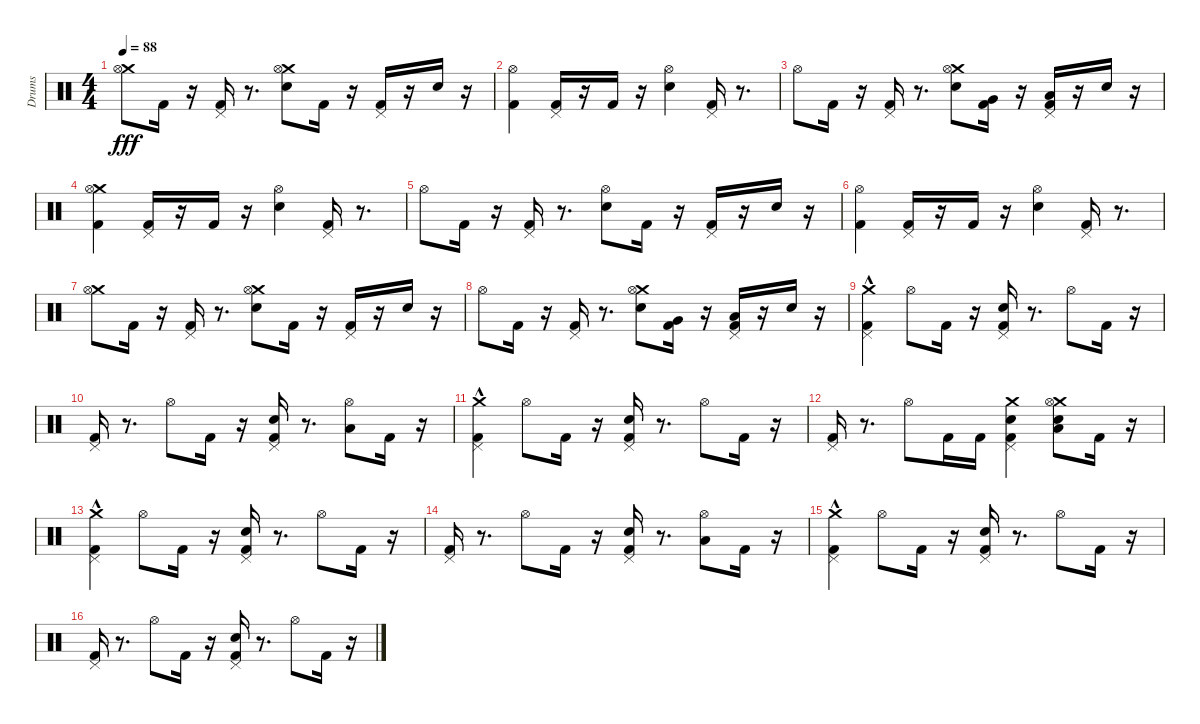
\track ("Drums" "Drums") {instrument percussion}
\staff {score}
\articulation defaults
\ts (4 4)
\tempo 88
\clef neutral
\ks c
("Crash medium (hit)" "Hi-Hat (open)").8{dy fff} "Kick (hit) 2".16 r.16 ("Pedal Hi-Hat (hit)" "Kick (hit) 2").16 r.8{d} ("Crash medium (hit)" "Hi-Hat (open)" "Snare (hit) 2").8 "Kick (hit) 2".16 r.16 ("Pedal Hi-Hat (hit)" "Kick (hit) 2").16 r.16 "Snare (hit) 2".16 r.16 |
("Hi-Hat (open)" "Kick (hit) 2").4 ("Pedal Hi-Hat (hit)" "Kick (hit) 2").16 r.16 "Kick (hit) 2".16 r.16 ("Hi-Hat (open)" "Snare (hit) 2").4 ("Pedal Hi-Hat (hit)" "Kick (hit) 2").16 r.8{d} |
"Hi-Hat (open)".8 "Kick (hit) 2".16 r.16 ("Pedal Hi-Hat (hit)" "Kick (hit) 2").16 r.8{d} ("Crash medium (hit)" "Hi-Hat (open)" "Snare (hit) 2").8 ("Very Low Tom (hit)" "Kick (hit) 2").16 r.16 ("Low Floor Tom (hit)" "Pedal Hi-Hat (hit)" "Kick (hit) 2").16 r.16 "Electric Snare (hit)".16 r.16 |
("Crash medium (hit)" "Hi-Hat (open)" "Kick (hit) 2").4 ("Pedal Hi-Hat (hit)" "Kick (hit) 2").16 r.16 "Kick (hit) 2".16 r.16 ("Hi-Hat (open)" "Snare (hit) 2").4 ("Pedal Hi-Hat (hit)" "Kick (hit) 2").16 r.8{d} |
"Hi-Hat (open)".8 "Kick (hit) 2".16 r.16 ("Pedal Hi-Hat (hit)" "Kick (hit) 2").16 r.8{d} ("Hi-Hat (open)" "Snare (hit) 2").8 "Kick (hit) 2".16 r.16 ("Pedal Hi-Hat (hit)" "Kick (hit) 2").16 r.16 "Snare (hit) 2".16 r.16 |
("Hi-Hat (open)" "Kick (hit) 2").4 ("Pedal Hi-Hat (hit)" "Kick (hit) 2").16 r.16 "Kick (hit) 2".16 r.16 ("Hi-Hat (open)" "Snare (hit) 2").4 ("Pedal Hi-Hat (hit)" "Kick (hit) 2").16 r.8{d} |
("Crash medium (hit)" "Hi-Hat (open)").8 "Kick (hit) 2".16 r.16 ("Pedal Hi-Hat (hit)" "Kick (hit) 2").16 r.8{d} ("Crash medium (hit)" "Hi-Hat (open)" "Snare (hit) 2").8 "Kick (hit) 2".16 r.16 ("Pedal Hi-Hat (hit)" "Kick (hit) 2").16 r.16 "Snare (hit) 2".16 r.16 |
"Hi-Hat (open)".8 "Kick (hit) 2".16 r.16 ("Pedal Hi-Hat (hit)" "Kick (hit) 2").16 r.8{d} ("Crash medium (hit)" "Hi-Hat (open)" "Snare (hit) 2").8 ("Very Low Tom (hit)" "Kick (hit) 2").16 r.16 ("Low Floor Tom (hit)" "Pedal Hi-Hat (hit)" "Kick (hit) 2").16 r.16 "Electric Snare (hit)".16 r.16 |
("Crash medium (hit)"{hac} "Pedal Hi-Hat (hit)" "Kick (hit) 2").4 "Hi-Hat (open)".8 "Kick (hit) 2".16 r.16 ("Pedal Hi-Hat (hit)" "Snare (hit) 2" "Kick (hit) 2").16 r.8{d} "Hi-Hat (open)".8 "Kick (hit) 2".16 r.16 |
("Pedal Hi-Hat (hit)" "Kick (hit) 2").16 r.8{d} "Hi-Hat (open)".8 "Kick (hit) 2".16 r.16 ("Pedal Hi-Hat (hit)" "Snare (hit) 2" "Kick (hit) 2").16 r.8{d} ("Low Floor Tom (hit)" "Hi-Hat (open)").8 "Kick (hit) 2".16 r.16 |
("Crash medium (hit)"{hac} "Pedal Hi-Hat (hit)" "Kick (hit) 2").4 "Hi-Hat (open)".8 "Kick (hit) 2".16 r.16 ("Pedal Hi-Hat (hit)" "Snare (hit) 2" "Kick (hit) 2").16 r.8{d} "Hi-Hat (open)".8 "Kick (hit) 2".16 r.16 |
("Pedal Hi-Hat (hit)" "Kick (hit) 2").16 r.8{d} "Hi-Hat (open)".8 "Kick (hit) 2".16 "Kick (hit) 2".16 ("Crash medium (hit)" "Pedal Hi-Hat (hit)" "Snare (hit) 2" "Kick (hit) 2").4 ("Crash medium (hit)" "Snare (hit) 2" "Low Floor Tom (hit)" "Hi-Hat (open)").8 "Kick (hit) 2".16 r.16 |
("Crash medium (hit)"{hac} "Pedal Hi-Hat (hit)" "Kick (hit) 2").4 "Hi-Hat (open)".8 "Kick (hit) 2".16 r.16 ("Pedal Hi-Hat (hit)" "Snare (hit) 2" "Kick (hit) 2").16 r.8{d} "Hi-Hat (open)".8 "Kick (hit) 2".16 r.16 |
("Pedal Hi-Hat (hit)" "Kick (hit) 2").16 r.8{d} "Hi-Hat (open)".8 "Kick (hit) 2".16 r.16 ("Pedal Hi-Hat (hit)" "Snare (hit) 2" "Kick (hit) 2").16 r.8{d} ("Low Floor Tom (hit)" "Hi-Hat (open)").8 "Kick (hit) 2".16 r.16 |
("Crash medium (hit)"{hac} "Pedal Hi-Hat (hit)" "Kick (hit) 2").4 "Hi-Hat (open)".8 "Kick (hit) 2".16 r.16 ("Pedal Hi-Hat (hit)" "Snare (hit) 2" "Kick (hit) 2").16 r.8{d} "Hi-Hat (open)".8 "Kick (hit) 2".16 r.16 |
("Pedal Hi-Hat (hit)" "Kick (hit) 2").16 r.8{d} "Hi-Hat (open)".8 "Kick (hit) 2".16 r.16 ("Pedal Hi-Hat (hit)" "Snare (hit) 2" "Kick (hit) 2").16 r.8{d} "Hi-Hat (open)".8 "Kick (hit) 2".16 r.16
